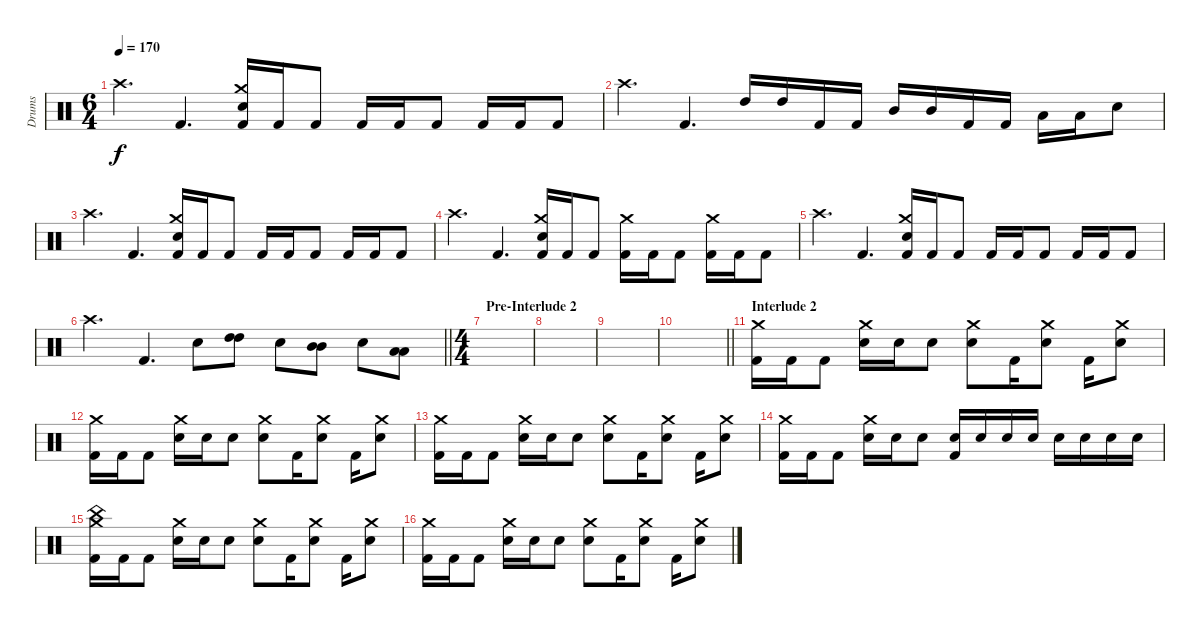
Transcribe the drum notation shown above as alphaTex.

\track ("Drums" "Drums") {instrument percussion}
\staff {score}
\articulation defaults
\ts (6 4)
\tempo 170
\clef neutral
\ks c "Crash high (hit)".4{d dy f} "Kick (hit) 2".4{d}
("Crash medium (hit)" "Electric Snare (hit)" "Kick (hit) 2").16 "Kick (hit) 2".16 "Kick (hit) 2".8 "Kick (hit) 2".16 "Kick (hit) 2".16 "Kick (hit) 2".8 "Kick (hit) 2".16 "Kick (hit) 2".16 "Kick (hit) 2".8 |
"Crash high (hit)".4{d} "Kick (hit) 2".4{d} "High Tom (hit)".16 "High Tom (hit)".16 "Kick (hit) 2".16 "Kick (hit) 2".16 "Mid Tom (hit)".16 "Mid Tom (hit)".16 "Kick (hit) 2".16 "Kick (hit) 2".16 "Low Tom (hit)".16 "Low Tom (hit)".16 "Electric Snare (hit)".8 |
"Crash high (hit)".4{d} "Kick (hit) 2".4{d} ("Crash medium (hit)" "Electric Snare (hit)" "Kick (hit) 2").16 "Kick (hit) 2".16 "Kick (hit) 2".8 "Kick (hit) 2".16 "Kick (hit) 2".16 "Kick (hit) 2".8 "Kick (hit) 2".16 "Kick (hit) 2".16 "Kick (hit) 2".8 |
"Crash high (hit)".4{d} "Kick (hit) 2".4{d} ("Crash medium (hit)" "Electric Snare (hit)" "Kick (hit) 2").16 "Kick (hit) 2".16 "Kick (hit) 2".8 ("Crash medium (hit)" "Kick (hit) 2").16 "Kick (hit) 2".16 "Kick (hit) 2".8 ("Crash medium (hit)" "Kick (hit) 2").16 "Kick (hit) 2".16 "Kick (hit) 2".8 |
"Crash high (hit)".4{d} "Kick (hit) 2".4{d} ("Crash medium (hit)" "Electric Snare (hit)" "Kick (hit) 2").16 "Kick (hit) 2".16 "Kick (hit) 2".8 "Kick (hit) 2".16 "Kick (hit) 2".16 "Kick (hit) 2".8 "Kick (hit) 2".16 "Kick (hit) 2".16 "Kick (hit) 2".8 |
\barLineRight lightlight "Crash high (hit)".4{d} "Kick (hit) 2".4{d} "Electric Snare (hit)".8
("High Tom (hit)" "High Tom (hit)").8 "Electric Snare (hit)".8 ("Mid Tom (hit)" "Mid Tom (hit)").8 "Electric Snare (hit)".8 ("Low Tom (hit)" "Low Tom (hit)").8 |
\ts (4 4)
\section ("" "Pre-Interlude 2")
|
|
|
\barLineRight lightlight
|
\section ("" "Interlude 2")
("Crash medium (hit)" "Kick (hit) 2").16 "Kick (hit) 2".16 "Kick (hit) 2".8 ("Crash medium (hit)" "Electric Snare (hit)").16 "Electric Snare (hit)".16 "Electric Snare (hit)".8 ("Crash medium (hit)" "Electric Snare (hit)").8 "Kick (hit) 2".16 ("Crash medium (hit)" "Electric Snare (hit)").8 "Kick (hit) 2".16 ("Crash medium (hit)" "Electric Snare (hit)").8 |
("Crash medium (hit)" "Kick (hit) 2").16 "Kick (hit) 2".16 "Kick (hit) 2".8 ("Crash medium (hit)" "Electric Snare (hit)").16 "Electric Snare (hit)".16 "Electric Snare (hit)".8 ("Crash medium (hit)" "Electric Snare (hit)").8 "Kick (hit) 2".16 ("Crash medium (hit)" "Electric Snare (hit)").8 "Kick (hit) 2".16 ("Crash medium (hit)" "Electric Snare (hit)").8 |
("Crash medium (hit)" "Kick (hit) 2").16 "Kick (hit) 2".16 "Kick (hit) 2".8 ("Crash medium (hit)" "Electric Snare (hit)").16 "Electric Snare (hit)".16 "Electric Snare (hit)".8 ("Crash medium (hit)" "Electric Snare (hit)").8 "Kick (hit) 2".16 ("Crash medium (hit)" "Electric Snare (hit)").8 "Kick (hit) 2".16 ("Crash medium (hit)" "Electric Snare (hit)").8 |
("Crash medium (hit)" "Kick (hit) 2").16 "Kick (hit) 2".16 "Kick (hit) 2".8 ("Crash medium (hit)" "Electric Snare (hit)").16 "Electric Snare (hit)".16 "Electric Snare (hit)".8 ("Electric Snare (hit)" "Kick (hit) 2").16 "Electric Snare (hit)".16 "Electric Snare (hit)".16 "Electric Snare (hit)".16 "Electric Snare (hit)".16 "Electric Snare (hit)".16 "Electric Snare (hit)".16 "Electric Snare (hit)".16 |
("China (hit)" "Crash medium (hit)" "Kick (hit) 2").16 "Kick (hit) 2".16 "Kick (hit) 2".8 ("Crash medium (hit)" "Electric Snare (hit)").16 "Electric Snare (hit)".16 "Electric Snare (hit)".8 ("Crash medium (hit)" "Electric Snare (hit)").8 "Kick (hit) 2".16 ("Crash medium (hit)" "Electric Snare (hit)").8 "Kick (hit) 2".16 ("Crash medium (hit)" "Electric Snare (hit)").8 |
("Crash medium (hit)" "Kick (hit) 2").16 "Kick (hit) 2".16 "Kick (hit) 2".8 ("Crash medium (hit)" "Electric Snare (hit)").16 "Electric Snare (hit)".16 "Electric Snare (hit)".8 ("Crash medium (hit)" "Electric Snare (hit)").8 "Kick (hit) 2".16 ("Crash medium (hit)" "Electric Snare (hit)").8 "Kick (hit) 2".16 ("Crash medium (hit)" "Electric Snare (hit)").8
